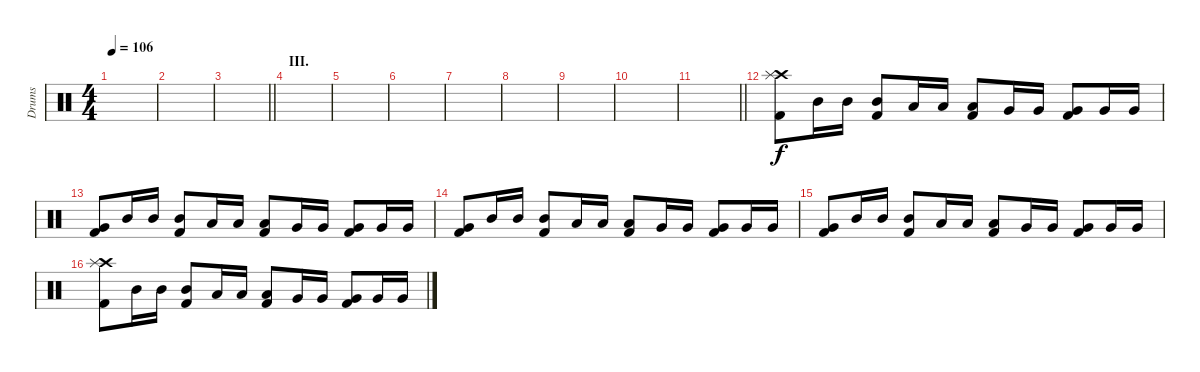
\track ("Drums" "Drums") {instrument percussion}
\staff {score}
\articulation defaults
\ts (4 4)
\tempo 106
\clef neutral
\ks c
|
|
\barLineRight lightlight
|
\section ("" "III.")
|
|
|
|
|
|
|
\barLineRight lightlight
|
\section ("" "")
("Crash high (hit)" "Splash (hit)" "Kick (hit) 2").8 "Mid Tom (hit)".16 "Mid Tom (hit)".16 ("Mid Tom (hit)" "Kick (hit) 2").8 "Low Tom (hit)".16 "Low Tom (hit)".16 ("Low Tom (hit)" "Kick (hit) 2").8 "Very Low Tom (hit)".16 "Very Low Tom (hit)".16 ("Very Low Tom (hit)" "Kick (hit) 2").8 "Very Low Tom (hit)".16 "Very Low Tom (hit)".16 |
("Very Low Tom (hit)" "Kick (hit) 2").8 "Mid Tom (hit)".16 "Mid Tom (hit)".16 ("Mid Tom (hit)" "Kick (hit) 2").8 "Low Tom (hit)".16 "Low Tom (hit)".16 ("Low Tom (hit)" "Kick (hit) 2").8 "Very Low Tom (hit)".16 "Very Low Tom (hit)".16 ("Very Low Tom (hit)" "Kick (hit) 2").8 "Very Low Tom (hit)".16 "Very Low Tom (hit)".16 |
("Very Low Tom (hit)" "Kick (hit) 2").8 "Mid Tom (hit)".16 "Mid Tom (hit)".16 ("Mid Tom (hit)" "Kick (hit) 2").8 "Low Tom (hit)".16 "Low Tom (hit)".16 ("Low Tom (hit)" "Kick (hit) 2").8 "Very Low Tom (hit)".16 "Very Low Tom (hit)".16 ("Very Low Tom (hit)" "Kick (hit) 2").8 "Very Low Tom (hit)".16 "Very Low Tom (hit)".16 |
("Very Low Tom (hit)" "Kick (hit) 2").8 "Mid Tom (hit)".16 "Mid Tom (hit)".16 ("Mid Tom (hit)" "Kick (hit) 2").8 "Low Tom (hit)".16 "Low Tom (hit)".16 ("Low Tom (hit)" "Kick (hit) 2").8 "Very Low Tom (hit)".16 "Very Low Tom (hit)".16 ("Very Low Tom (hit)" "Kick (hit) 2").8 "Very Low Tom (hit)".16 "Very Low Tom (hit)".16 |
("Crash high (hit)" "Splash (hit)" "Kick (hit) 2").8 "Mid Tom (hit)".16 "Mid Tom (hit)".16 ("Mid Tom (hit)" "Kick (hit) 2").8 "Low Tom (hit)".16 "Low Tom (hit)".16 ("Low Tom (hit)" "Kick (hit) 2").8 "Very Low Tom (hit)".16 "Very Low Tom (hit)".16 ("Very Low Tom (hit)" "Kick (hit) 2").8 "Very Low Tom (hit)".16 "Very Low Tom (hit)".16
